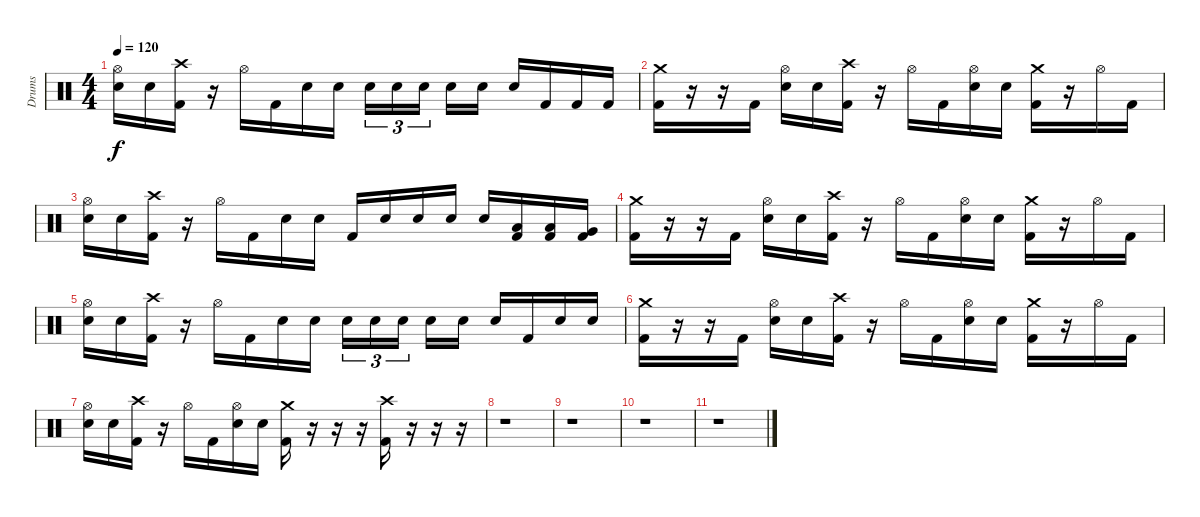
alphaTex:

\track ("Drums" "Drums") {instrument percussion}
\staff {score}
\articulation defaults
\ts (4 4)
\tempo 120
\clef neutral
\ks c
("Hi-Hat (open)" "Electric Snare (hit)").16{dy f} "Electric Snare (hit)".16 ("Crash high (hit)" "Kick (hit) 2").16 r.16 "Hi-Hat (open)".16 "Kick (hit) 2".16 "Electric Snare (hit)".16 "Electric Snare (hit)".16 "Electric Snare (hit)".16{tu (3 2)} "Electric Snare (hit)".16{tu (3 2)} "Electric Snare (hit)".16{tu (3 2)} "Electric Snare (hit)".16 "Electric Snare (hit)".16 "Electric Snare (hit)".16 "Kick (hit) 2".16 "Kick (hit) 2".16 "Kick (hit) 2".16 |
("Crash medium (hit)" "Kick (hit) 2").16 r.16 r.16 "Kick (hit) 2".16 ("Hi-Hat (open)" "Electric Snare (hit)").16 "Electric Snare (hit)".16 ("Crash high (hit)" "Kick (hit) 2").16 r.16 "Hi-Hat (open)".16 "Kick (hit) 2".16 ("Hi-Hat (open)" "Electric Snare (hit)").16 "Electric Snare (hit)".16 ("Crash medium (hit)" "Kick (hit) 2").16 r.16 "Hi-Hat (open)".16 "Kick (hit) 2".16 |
("Hi-Hat (open)" "Electric Snare (hit)").16 "Electric Snare (hit)".16 ("Crash high (hit)" "Kick (hit) 2").16 r.16 "Hi-Hat (open)".16 "Kick (hit) 2".16 "Electric Snare (hit)".16 "Electric Snare (hit)".16 "Kick (hit) 2".16 "Electric Snare (hit)".16 "Electric Snare (hit)".16 "Electric Snare (hit)".16 "Electric Snare (hit)".16 ("Low Tom (hit)" "Kick (hit) 2").16 ("Low Tom (hit)" "Kick (hit) 2").16 ("Very Low Tom (hit)" "Kick (hit) 2").16 |
("Crash medium (hit)" "Kick (hit) 2").16 r.16 r.16 "Kick (hit) 2".16 ("Hi-Hat (open)" "Electric Snare (hit)").16 "Electric Snare (hit)".16 ("Crash high (hit)" "Kick (hit) 2").16 r.16 "Hi-Hat (open)".16 "Kick (hit) 2".16 ("Hi-Hat (open)" "Electric Snare (hit)").16 "Electric Snare (hit)".16 ("Crash medium (hit)" "Kick (hit) 2").16 r.16 "Hi-Hat (open)".16 "Kick (hit) 2".16 |
("Hi-Hat (open)" "Electric Snare (hit)").16 "Electric Snare (hit)".16 ("Crash high (hit)" "Kick (hit) 2").16 r.16 "Hi-Hat (open)".16 "Kick (hit) 2".16 "Electric Snare (hit)".16 "Electric Snare (hit)".16 "Electric Snare (hit)".16{tu (3 2)} "Electric Snare (hit)".16{tu (3 2)} "Electric Snare (hit)".16{tu (3 2)} "Electric Snare (hit)".16 "Electric Snare (hit)".16 "Electric Snare (hit)".16 "Kick (hit) 2".16 "Electric Snare (hit)".16 "Electric Snare (hit)".16 |
("Crash medium (hit)" "Kick (hit) 2").16 r.16 r.16 "Kick (hit) 2".16 ("Hi-Hat (open)" "Electric Snare (hit)").16 "Electric Snare (hit)".16 ("Crash high (hit)" "Kick (hit) 2").16 r.16 "Hi-Hat (open)".16 "Kick (hit) 2".16 ("Hi-Hat (open)" "Electric Snare (hit)").16 "Electric Snare (hit)".16 ("Crash medium (hit)" "Kick (hit) 2").16 r.16 "Hi-Hat (open)".16 "Kick (hit) 2".16 |
("Hi-Hat (open)" "Electric Snare (hit)").16 "Electric Snare (hit)".16 ("Crash high (hit)" "Kick (hit) 2").16 r.16 "Hi-Hat (open)".16 "Kick (hit) 2".16 ("Hi-Hat (open)" "Electric Snare (hit)").16 "Electric Snare (hit)".16 ("Crash medium (hit)" "Kick (hit) 2").16 r.16 r.16 r.16 ("Crash high (hit)" "Kick (hit) 2").16 r.16 r.16 r.16 |
\section ("" "")
r.1 |
r.1 |
r.1 |
r.1
